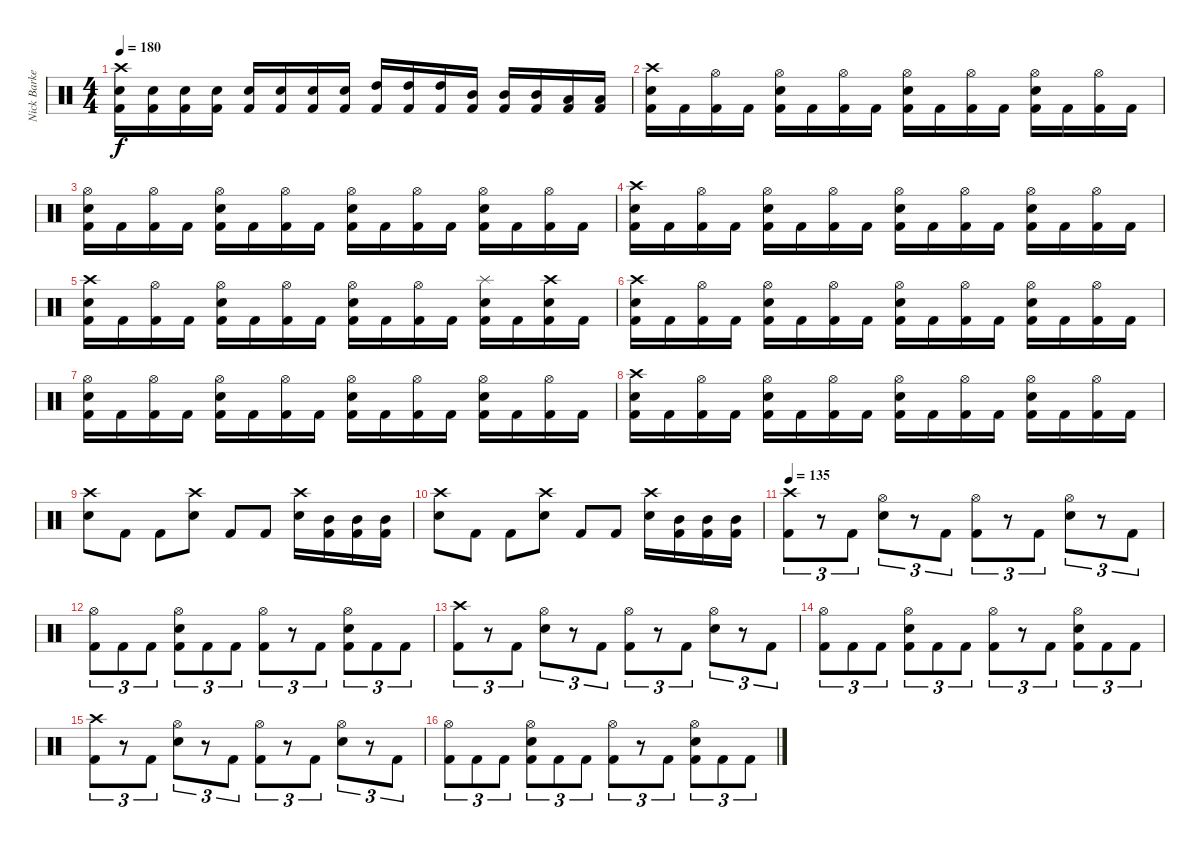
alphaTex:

\track ("Nick Barker" "Nick Barke") {instrument percussion}
\staff {score}
\articulation defaults
\ts (4 4)
\tempo 180
\clef neutral
\ks c
("Crash high (hit)" "Electric Snare (hit)" "Kick (hit) 2").16{dy f} ("Electric Snare (hit)" "Kick (hit) 2").16 ("Electric Snare (hit)" "Kick (hit) 2").16 ("Electric Snare (hit)" "Kick (hit) 2").16 ("Electric Snare (hit)" "Kick (hit) 2").16 ("Electric Snare (hit)" "Kick (hit) 2").16 ("Electric Snare (hit)" "Kick (hit) 2").16 ("Electric Snare (hit)" "Kick (hit) 2").16 ("High Tom (hit)" "Kick (hit) 2").16 ("High Tom (hit)" "Kick (hit) 2").16 ("High Tom (hit)" "Kick (hit) 2").16 ("Mid Tom (hit)" "Kick (hit) 2").16 ("Mid Tom (hit)" "Kick (hit) 2").16 ("Mid Tom (hit)" "Kick (hit) 2").16 ("Low Tom (hit)" "Kick (hit) 2").16 ("Low Tom (hit)" "Kick (hit) 2").16 |
("Crash high (hit)" "Electric Snare (hit)" "Kick (hit) 2").16 "Kick (hit) 2".16 ("Hi-Hat (open)" "Kick (hit) 2").16 "Kick (hit) 2".16 ("Hi-Hat (open)" "Electric Snare (hit)" "Kick (hit) 2").16 "Kick (hit) 2".16 ("Hi-Hat (open)" "Kick (hit) 2").16 "Kick (hit) 2".16 ("Hi-Hat (open)" "Electric Snare (hit)" "Kick (hit) 2").16 "Kick (hit) 2".16 ("Hi-Hat (open)" "Kick (hit) 2").16 "Kick (hit) 2".16 ("Hi-Hat (open)" "Electric Snare (hit)" "Kick (hit) 2").16 "Kick (hit) 2".16 ("Hi-Hat (open)" "Kick (hit) 2").16 "Kick (hit) 2".16 |
("Hi-Hat (open)" "Electric Snare (hit)" "Kick (hit) 2").16 "Kick (hit) 2".16 ("Hi-Hat (open)" "Kick (hit) 2").16 "Kick (hit) 2".16 ("Hi-Hat (open)" "Electric Snare (hit)" "Kick (hit) 2").16 "Kick (hit) 2".16 ("Hi-Hat (open)" "Kick (hit) 2").16 "Kick (hit) 2".16 ("Hi-Hat (open)" "Electric Snare (hit)" "Kick (hit) 2").16 "Kick (hit) 2".16 ("Hi-Hat (open)" "Kick (hit) 2").16 "Kick (hit) 2".16 ("Hi-Hat (open)" "Electric Snare (hit)" "Kick (hit) 2").16 "Kick (hit) 2".16 ("Hi-Hat (open)" "Kick (hit) 2").16 "Kick (hit) 2".16 |
("Crash high (hit)" "Electric Snare (hit)" "Kick (hit) 2").16 "Kick (hit) 2".16 ("Hi-Hat (open)" "Kick (hit) 2").16 "Kick (hit) 2".16 ("Hi-Hat (open)" "Electric Snare (hit)" "Kick (hit) 2").16 "Kick (hit) 2".16 ("Hi-Hat (open)" "Kick (hit) 2").16 "Kick (hit) 2".16 ("Hi-Hat (open)" "Electric Snare (hit)" "Kick (hit) 2").16 "Kick (hit) 2".16 ("Hi-Hat (open)" "Kick (hit) 2").16 "Kick (hit) 2".16 ("Hi-Hat (open)" "Electric Snare (hit)" "Kick (hit) 2").16 "Kick (hit) 2".16 ("Hi-Hat (open)" "Kick (hit) 2").16 "Kick (hit) 2".16 |
("Crash high (hit)" "Electric Snare (hit)" "Kick (hit) 2").16 "Kick (hit) 2".16 ("Hi-Hat (open)" "Kick (hit) 2").16 "Kick (hit) 2".16 ("Hi-Hat (open)" "Electric Snare (hit)" "Kick (hit) 2").16 "Kick (hit) 2".16 ("Hi-Hat (open)" "Kick (hit) 2").16 "Kick (hit) 2".16 ("Hi-Hat (open)" "Electric Snare (hit)" "Kick (hit) 2").16 "Kick (hit) 2".16 ("Hi-Hat (open)" "Kick (hit) 2").16 "Kick (hit) 2".16 ("Splash (hit)" "Electric Snare (hit)" "Kick (hit) 2").16 "Kick (hit) 2".16 ("Crash high (hit)" "Electric Snare (hit)" "Kick (hit) 2").16 "Kick (hit) 2".16 |
("Crash high (hit)" "Electric Snare (hit)" "Kick (hit) 2").16 "Kick (hit) 2".16 ("Hi-Hat (open)" "Kick (hit) 2").16 "Kick (hit) 2".16 ("Hi-Hat (open)" "Electric Snare (hit)" "Kick (hit) 2").16 "Kick (hit) 2".16 ("Hi-Hat (open)" "Kick (hit) 2").16 "Kick (hit) 2".16 ("Hi-Hat (open)" "Electric Snare (hit)" "Kick (hit) 2").16 "Kick (hit) 2".16 ("Hi-Hat (open)" "Kick (hit) 2").16 "Kick (hit) 2".16 ("Hi-Hat (open)" "Electric Snare (hit)" "Kick (hit) 2").16 "Kick (hit) 2".16 ("Hi-Hat (open)" "Kick (hit) 2").16 "Kick (hit) 2".16 |
("Hi-Hat (open)" "Electric Snare (hit)" "Kick (hit) 2").16 "Kick (hit) 2".16 ("Hi-Hat (open)" "Kick (hit) 2").16 "Kick (hit) 2".16 ("Hi-Hat (open)" "Electric Snare (hit)" "Kick (hit) 2").16 "Kick (hit) 2".16 ("Hi-Hat (open)" "Kick (hit) 2").16 "Kick (hit) 2".16 ("Hi-Hat (open)" "Electric Snare (hit)" "Kick (hit) 2").16 "Kick (hit) 2".16 ("Hi-Hat (open)" "Kick (hit) 2").16 "Kick (hit) 2".16 ("Hi-Hat (open)" "Electric Snare (hit)" "Kick (hit) 2").16 "Kick (hit) 2".16 ("Hi-Hat (open)" "Kick (hit) 2").16 "Kick (hit) 2".16 |
("Crash high (hit)" "Electric Snare (hit)" "Kick (hit) 2").16 "Kick (hit) 2".16 ("Hi-Hat (open)" "Kick (hit) 2").16 "Kick (hit) 2".16 ("Hi-Hat (open)" "Electric Snare (hit)" "Kick (hit) 2").16 "Kick (hit) 2".16 ("Hi-Hat (open)" "Kick (hit) 2").16 "Kick (hit) 2".16 ("Hi-Hat (open)" "Electric Snare (hit)" "Kick (hit) 2").16 "Kick (hit) 2".16 ("Hi-Hat (open)" "Kick (hit) 2").16 "Kick (hit) 2".16 ("Hi-Hat (open)" "Electric Snare (hit)" "Kick (hit) 2").16 "Kick (hit) 2".16 ("Hi-Hat (open)" "Kick (hit) 2").16 "Kick (hit) 2".16 |
("Crash high (hit)" "Electric Snare (hit)").8 "Kick (hit) 2".8 "Kick (hit) 2".8 ("Crash high (hit)" "Electric Snare (hit)").8 "Kick (hit) 2".8 "Kick (hit) 2".8 ("Crash high (hit)" "Electric Snare (hit)").16 ("Mid Tom (hit)" "Kick (hit) 2").16 ("Mid Tom (hit)" "Kick (hit) 2").16 ("Mid Tom (hit)" "Kick (hit) 2").16 |
("Crash high (hit)" "Electric Snare (hit)").8 "Kick (hit) 2".8 "Kick (hit) 2".8 ("Crash high (hit)" "Electric Snare (hit)").8 "Kick (hit) 2".8 "Kick (hit) 2".8 ("Crash high (hit)" "Electric Snare (hit)").16 ("Mid Tom (hit)" "Kick (hit) 2").16 ("Mid Tom (hit)" "Kick (hit) 2").16 ("Mid Tom (hit)" "Kick (hit) 2").16 |
\section ("" "")
\tempo 135
("Crash high (hit)" "Kick (hit) 2").8{tu (3 2)} r.8{tu (3 2)} "Kick (hit) 2".8{tu (3 2)} ("Hi-Hat (open)" "Electric Snare (hit)").8{tu (3 2)} r.8{tu (3 2)} "Kick (hit) 2".8{tu (3 2)} ("Hi-Hat (open)" "Kick (hit) 2").8{tu (3 2)} r.8{tu (3 2)} "Kick (hit) 2".8{tu (3 2)} ("Hi-Hat (open)" "Electric Snare (hit)").8{tu (3 2)} r.8{tu (3 2)} "Kick (hit) 2".8{tu (3 2)} |
("Hi-Hat (open)" "Kick (hit) 2").8{tu (3 2)} "Kick (hit) 2".8{tu (3 2)} "Kick (hit) 2".8{tu (3 2)} ("Hi-Hat (open)" "Electric Snare (hit)" "Kick (hit) 2").8{tu (3 2)} "Kick (hit) 2".8{tu (3 2)} "Kick (hit) 2".8{tu (3 2)} ("Hi-Hat (open)" "Kick (hit) 2").8{tu (3 2)} r.8{tu (3 2)} "Kick (hit) 2".8{tu (3 2)} ("Hi-Hat (open)" "Electric Snare (hit)" "Kick (hit) 2").8{tu (3 2)} "Kick (hit) 2".8{tu (3 2)} "Kick (hit) 2".8{tu (3 2)} |
("Crash high (hit)" "Kick (hit) 2").8{tu (3 2)} r.8{tu (3 2)} "Kick (hit) 2".8{tu (3 2)} ("Hi-Hat (open)" "Electric Snare (hit)").8{tu (3 2)} r.8{tu (3 2)} "Kick (hit) 2".8{tu (3 2)} ("Hi-Hat (open)" "Kick (hit) 2").8{tu (3 2)} r.8{tu (3 2)} "Kick (hit) 2".8{tu (3 2)} ("Hi-Hat (open)" "Electric Snare (hit)").8{tu (3 2)} r.8{tu (3 2)} "Kick (hit) 2".8{tu (3 2)} |
("Hi-Hat (open)" "Kick (hit) 2").8{tu (3 2)} "Kick (hit) 2".8{tu (3 2)} "Kick (hit) 2".8{tu (3 2)} ("Hi-Hat (open)" "Electric Snare (hit)" "Kick (hit) 2").8{tu (3 2)} "Kick (hit) 2".8{tu (3 2)} "Kick (hit) 2".8{tu (3 2)} ("Hi-Hat (open)" "Kick (hit) 2").8{tu (3 2)} r.8{tu (3 2)} "Kick (hit) 2".8{tu (3 2)} ("Hi-Hat (open)" "Electric Snare (hit)" "Kick (hit) 2").8{tu (3 2)} "Kick (hit) 2".8{tu (3 2)} "Kick (hit) 2".8{tu (3 2)} |
("Crash high (hit)" "Kick (hit) 2").8{tu (3 2)} r.8{tu (3 2)} "Kick (hit) 2".8{tu (3 2)} ("Hi-Hat (open)" "Electric Snare (hit)").8{tu (3 2)} r.8{tu (3 2)} "Kick (hit) 2".8{tu (3 2)} ("Hi-Hat (open)" "Kick (hit) 2").8{tu (3 2)} r.8{tu (3 2)} "Kick (hit) 2".8{tu (3 2)} ("Hi-Hat (open)" "Electric Snare (hit)").8{tu (3 2)} r.8{tu (3 2)} "Kick (hit) 2".8{tu (3 2)} |
("Hi-Hat (open)" "Kick (hit) 2").8{tu (3 2)} "Kick (hit) 2".8{tu (3 2)} "Kick (hit) 2".8{tu (3 2)} ("Hi-Hat (open)" "Electric Snare (hit)" "Kick (hit) 2").8{tu (3 2)} "Kick (hit) 2".8{tu (3 2)} "Kick (hit) 2".8{tu (3 2)} ("Hi-Hat (open)" "Kick (hit) 2").8{tu (3 2)} r.8{tu (3 2)} "Kick (hit) 2".8{tu (3 2)} ("Hi-Hat (open)" "Electric Snare (hit)" "Kick (hit) 2").8{tu (3 2)} "Kick (hit) 2".8{tu (3 2)} "Kick (hit) 2".8{tu (3 2)}
